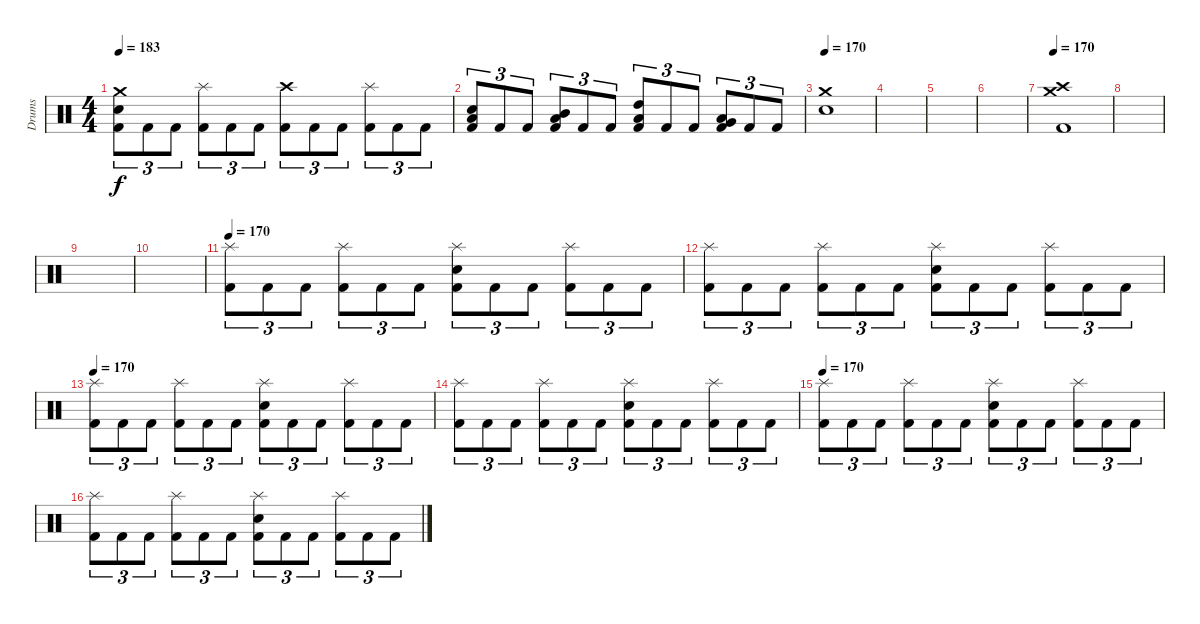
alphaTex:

\track ("Drums" "Drums") {instrument percussion}
\staff {score}
\articulation defaults
\ts (4 4)
\tempo 183
\clef neutral
\ks c
("Kick (hit) 2" "Electric Snare (hit)" "Crash medium (hit)").8{tu (3 2) dy f} "Kick (hit) 2".8{tu (3 2)} "Kick (hit) 2".8{tu (3 2)} ("Kick (hit) 2" "Splash (hit)").8{tu (3 2)} "Kick (hit) 2".8{tu (3 2)} "Kick (hit) 2".8{tu (3 2)} ("Kick (hit) 2" "Crash high (hit)").8{tu (3 2)} "Kick (hit) 2".8{tu (3 2)} "Kick (hit) 2".8{tu (3 2)} ("Kick (hit) 2" "Splash (hit)").8{tu (3 2)} "Kick (hit) 2".8{tu (3 2)} "Kick (hit) 2".8{tu (3 2)} |
("Kick (hit) 2" "Low Tom (hit)" "Electric Snare (hit)").8{tu (3 2)} "Kick (hit) 2".8{tu (3 2)} "Kick (hit) 2".8{tu (3 2)} ("Kick (hit) 2" "Mid Tom (hit)" "Low Tom (hit)").8{tu (3 2)} "Kick (hit) 2".8{tu (3 2)} "Kick (hit) 2".8{tu (3 2)} ("Kick (hit) 2" "High Tom (hit)" "Low Tom (hit)").8{tu (3 2)} "Kick (hit) 2".8{tu (3 2)} "Kick (hit) 2".8{tu (3 2)} ("Kick (hit) 2" "Low Tom (hit)" "Very Low Tom (hit)").8{tu (3 2)} "Kick (hit) 2".8{tu (3 2)} "Kick (hit) 2".8{tu (3 2)} |
\tempo 170
("Electric Snare (hit)" "Crash medium (hit)").1 |
|
|
|
\tempo 170
("Kick (hit) 2" "Crash high (hit)" "Crash medium (hit)").1 |
|
|
|
\tempo 170
("Kick (hit) 2" "Splash (hit)").8{tu (3 2)} "Kick (hit) 2".8{tu (3 2)} "Kick (hit) 2".8{tu (3 2)} ("Kick (hit) 2" "Splash (hit)").8{tu (3 2)} "Kick (hit) 2".8{tu (3 2)} "Kick (hit) 2".8{tu (3 2)} ("Kick (hit) 2" "Electric Snare (hit)" "Splash (hit)").8{tu (3 2)} "Kick (hit) 2".8{tu (3 2)} "Kick (hit) 2".8{tu (3 2)} ("Kick (hit) 2" "Splash (hit)").8{tu (3 2)} "Kick (hit) 2".8{tu (3 2)} "Kick (hit) 2".8{tu (3 2)} |
("Kick (hit) 2" "Splash (hit)").8{tu (3 2)} "Kick (hit) 2".8{tu (3 2)} "Kick (hit) 2".8{tu (3 2)} ("Kick (hit) 2" "Splash (hit)").8{tu (3 2)} "Kick (hit) 2".8{tu (3 2)} "Kick (hit) 2".8{tu (3 2)} ("Kick (hit) 2" "Electric Snare (hit)" "Splash (hit)").8{tu (3 2)} "Kick (hit) 2".8{tu (3 2)} "Kick (hit) 2".8{tu (3 2)} ("Kick (hit) 2" "Splash (hit)").8{tu (3 2)} "Kick (hit) 2".8{tu (3 2)} "Kick (hit) 2".8{tu (3 2)} |
\tempo 170
("Kick (hit) 2" "Splash (hit)").8{tu (3 2)} "Kick (hit) 2".8{tu (3 2)} "Kick (hit) 2".8{tu (3 2)} ("Kick (hit) 2" "Splash (hit)").8{tu (3 2)} "Kick (hit) 2".8{tu (3 2)} "Kick (hit) 2".8{tu (3 2)} ("Kick (hit) 2" "Electric Snare (hit)" "Splash (hit)").8{tu (3 2)} "Kick (hit) 2".8{tu (3 2)} "Kick (hit) 2".8{tu (3 2)} ("Kick (hit) 2" "Splash (hit)").8{tu (3 2)} "Kick (hit) 2".8{tu (3 2)} "Kick (hit) 2".8{tu (3 2)} |
("Kick (hit) 2" "Splash (hit)").8{tu (3 2)} "Kick (hit) 2".8{tu (3 2)} "Kick (hit) 2".8{tu (3 2)} ("Kick (hit) 2" "Splash (hit)").8{tu (3 2)} "Kick (hit) 2".8{tu (3 2)} "Kick (hit) 2".8{tu (3 2)} ("Kick (hit) 2" "Electric Snare (hit)" "Splash (hit)").8{tu (3 2)} "Kick (hit) 2".8{tu (3 2)} "Kick (hit) 2".8{tu (3 2)} ("Kick (hit) 2" "Splash (hit)").8{tu (3 2)} "Kick (hit) 2".8{tu (3 2)} "Kick (hit) 2".8{tu (3 2)} |
\tempo 170
("Kick (hit) 2" "Splash (hit)").8{tu (3 2)} "Kick (hit) 2".8{tu (3 2)} "Kick (hit) 2".8{tu (3 2)} ("Kick (hit) 2" "Splash (hit)").8{tu (3 2)} "Kick (hit) 2".8{tu (3 2)} "Kick (hit) 2".8{tu (3 2)} ("Kick (hit) 2" "Electric Snare (hit)" "Splash (hit)").8{tu (3 2)} "Kick (hit) 2".8{tu (3 2)} "Kick (hit) 2".8{tu (3 2)} ("Kick (hit) 2" "Splash (hit)").8{tu (3 2)} "Kick (hit) 2".8{tu (3 2)} "Kick (hit) 2".8{tu (3 2)} |
("Kick (hit) 2" "Splash (hit)").8{tu (3 2)} "Kick (hit) 2".8{tu (3 2)} "Kick (hit) 2".8{tu (3 2)} ("Kick (hit) 2" "Splash (hit)").8{tu (3 2)} "Kick (hit) 2".8{tu (3 2)} "Kick (hit) 2".8{tu (3 2)} ("Kick (hit) 2" "Electric Snare (hit)" "Splash (hit)").8{tu (3 2)} "Kick (hit) 2".8{tu (3 2)} "Kick (hit) 2".8{tu (3 2)} ("Kick (hit) 2" "Splash (hit)").8{tu (3 2)} "Kick (hit) 2".8{tu (3 2)} "Kick (hit) 2".8{tu (3 2)}
